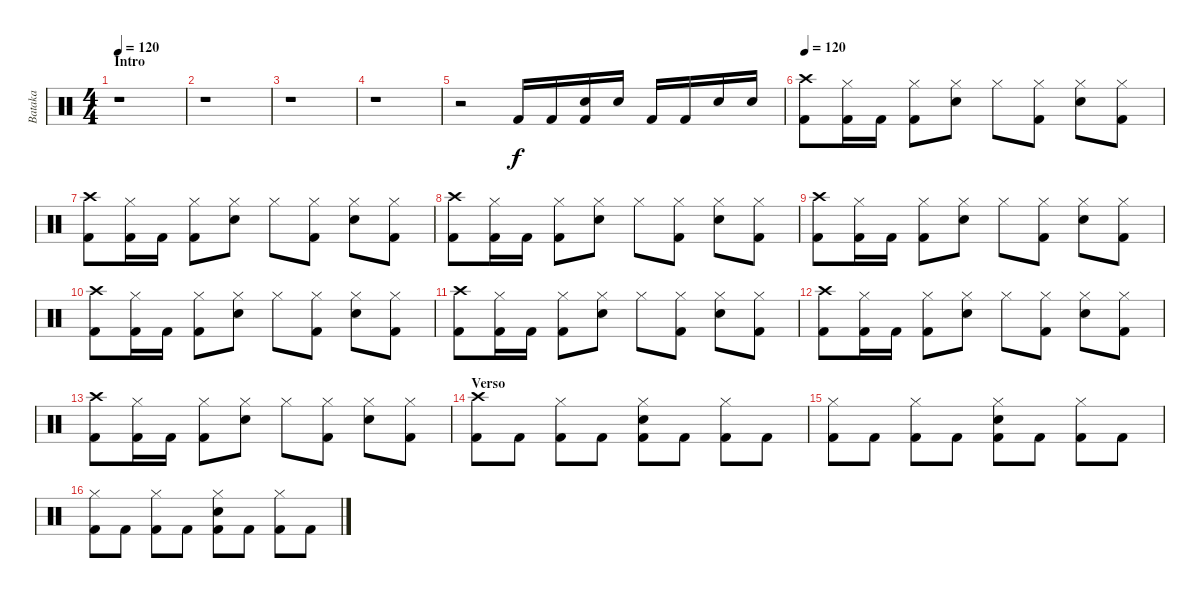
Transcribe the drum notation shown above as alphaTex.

\track ("Bataka" "Bataka") {instrument percussion}
\staff {score}
\articulation defaults
\ts (4 4)
\section ("" "Intro")
\tempo 120
\tempo 100
\tempo 120
\clef neutral
\ks c
r.1{dy f} |
r.1 |
r.1 |
r.1 |
r.2 "Kick (hit) 2".16 "Kick (hit) 2".16 ("Snare (hit) 2" "Kick (hit) 2").16 "Snare (hit) 2".16 "Kick (hit) 2".16 "Kick (hit) 2".16 "Snare (hit) 2".16 "Snare (hit) 2".16 |
\tempo 120
("Crash high (hit)" "Kick (hit) 2").8 ("Hi-Hat (closed)" "Kick (hit) 2").16 "Kick (hit) 2".16 ("Hi-Hat (closed)" "Kick (hit) 2").8 ("Hi-Hat (closed)" "Snare (hit) 2").8 "Hi-Hat (closed)".8 ("Hi-Hat (closed)" "Kick (hit) 2").8 ("Hi-Hat (closed)" "Snare (hit) 2").8 ("Hi-Hat (closed)" "Kick (hit) 2").8 |
("Crash high (hit)" "Kick (hit) 2").8 ("Hi-Hat (closed)" "Kick (hit) 2").16 "Kick (hit) 2".16 ("Hi-Hat (closed)" "Kick (hit) 2").8 ("Hi-Hat (closed)" "Snare (hit) 2").8 "Hi-Hat (closed)".8 ("Hi-Hat (closed)" "Kick (hit) 2").8 ("Hi-Hat (closed)" "Snare (hit) 2").8 ("Hi-Hat (closed)" "Kick (hit) 2").8 |
("Crash high (hit)" "Kick (hit) 2").8 ("Hi-Hat (closed)" "Kick (hit) 2").16 "Kick (hit) 2".16 ("Hi-Hat (closed)" "Kick (hit) 2").8 ("Hi-Hat (closed)" "Snare (hit) 2").8 "Hi-Hat (closed)".8 ("Hi-Hat (closed)" "Kick (hit) 2").8 ("Hi-Hat (closed)" "Snare (hit) 2").8 ("Hi-Hat (closed)" "Kick (hit) 2").8 |
("Crash high (hit)" "Kick (hit) 2").8 ("Hi-Hat (closed)" "Kick (hit) 2").16 "Kick (hit) 2".16 ("Hi-Hat (closed)" "Kick (hit) 2").8 ("Hi-Hat (closed)" "Snare (hit) 2").8 "Hi-Hat (closed)".8 ("Hi-Hat (closed)" "Kick (hit) 2").8 ("Hi-Hat (closed)" "Snare (hit) 2").8 ("Hi-Hat (closed)" "Kick (hit) 2").8 |
("Crash high (hit)" "Kick (hit) 2").8 ("Hi-Hat (closed)" "Kick (hit) 2").16 "Kick (hit) 2".16 ("Hi-Hat (closed)" "Kick (hit) 2").8 ("Hi-Hat (closed)" "Snare (hit) 2").8 "Hi-Hat (closed)".8 ("Hi-Hat (closed)" "Kick (hit) 2").8 ("Hi-Hat (closed)" "Snare (hit) 2").8 ("Hi-Hat (closed)" "Kick (hit) 2").8 |
("Crash high (hit)" "Kick (hit) 2").8 ("Hi-Hat (closed)" "Kick (hit) 2").16 "Kick (hit) 2".16 ("Hi-Hat (closed)" "Kick (hit) 2").8 ("Hi-Hat (closed)" "Snare (hit) 2").8 "Hi-Hat (closed)".8 ("Hi-Hat (closed)" "Kick (hit) 2").8 ("Hi-Hat (closed)" "Snare (hit) 2").8 ("Hi-Hat (closed)" "Kick (hit) 2").8 |
("Crash high (hit)" "Kick (hit) 2").8 ("Hi-Hat (closed)" "Kick (hit) 2").16 "Kick (hit) 2".16 ("Hi-Hat (closed)" "Kick (hit) 2").8 ("Hi-Hat (closed)" "Snare (hit) 2").8 "Hi-Hat (closed)".8 ("Hi-Hat (closed)" "Kick (hit) 2").8 ("Hi-Hat (closed)" "Snare (hit) 2").8 ("Hi-Hat (closed)" "Kick (hit) 2").8 |
("Crash high (hit)" "Kick (hit) 2").8 ("Hi-Hat (closed)" "Kick (hit) 2").16 "Kick (hit) 2".16 ("Hi-Hat (closed)" "Kick (hit) 2").8 ("Hi-Hat (closed)" "Snare (hit) 2").8 "Hi-Hat (closed)".8 ("Hi-Hat (closed)" "Kick (hit) 2").8 ("Hi-Hat (closed)" "Snare (hit) 2").8 ("Hi-Hat (closed)" "Kick (hit) 2").8 |
\section ("" "Verso")
("Crash high (hit)" "Kick (hit) 2").8 "Kick (hit) 2".8 ("Hi-Hat (closed)" "Kick (hit) 2").8 "Kick (hit) 2".8 ("Hi-Hat (closed)" "Snare (hit) 2" "Kick (hit) 2").8 "Kick (hit) 2".8 ("Hi-Hat (closed)" "Kick (hit) 2").8 "Kick (hit) 2".8 |
("Hi-Hat (closed)" "Kick (hit) 2").8 "Kick (hit) 2".8 ("Hi-Hat (closed)" "Kick (hit) 2").8 "Kick (hit) 2".8 ("Hi-Hat (closed)" "Snare (hit) 2" "Kick (hit) 2").8 "Kick (hit) 2".8 ("Hi-Hat (closed)" "Kick (hit) 2").8 "Kick (hit) 2".8 |
("Hi-Hat (closed)" "Kick (hit) 2").8 "Kick (hit) 2".8 ("Hi-Hat (closed)" "Kick (hit) 2").8 "Kick (hit) 2".8 ("Hi-Hat (closed)" "Snare (hit) 2" "Kick (hit) 2").8 "Kick (hit) 2".8 ("Hi-Hat (closed)" "Kick (hit) 2").8 "Kick (hit) 2".8
